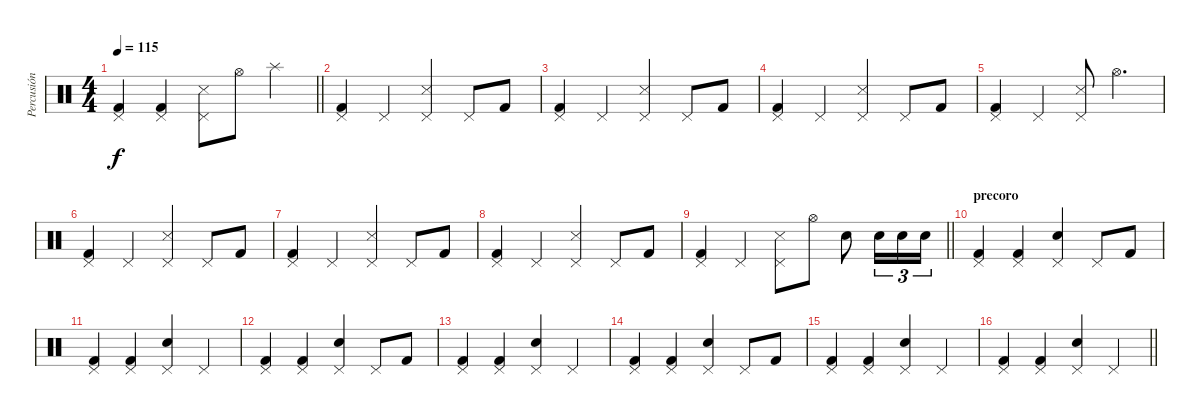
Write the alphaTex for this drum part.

\track ("Percusión" "Percusión") {instrument percussion}
\staff {score}
\articulation defaults
\ts (4 4)
\tempo 115
\clef neutral
\barLineRight lightlight
\ks c
("Pedal Hi-Hat (hit)" "Kick (hit) 2").4{dy f} ("Pedal Hi-Hat (hit)" "Kick (hit) 2").4 ("Pedal Hi-Hat (hit)" "Snare (side stick) 3").8 "Hi-Hat (open)".8 "Splash (hit)".4 |
("Pedal Hi-Hat (hit)" "Kick (hit) 2").4 "Pedal Hi-Hat (hit)".4 ("Pedal Hi-Hat (hit)" "Snare (side stick) 3").4 "Pedal Hi-Hat (hit)".8 "Kick (hit) 2".8 |
("Pedal Hi-Hat (hit)" "Kick (hit) 2").4 "Pedal Hi-Hat (hit)".4 ("Pedal Hi-Hat (hit)" "Snare (side stick) 3").4 "Pedal Hi-Hat (hit)".8 "Kick (hit) 2".8 |
("Pedal Hi-Hat (hit)" "Kick (hit) 2").4 "Pedal Hi-Hat (hit)".4 ("Pedal Hi-Hat (hit)" "Snare (side stick) 3").4 "Pedal Hi-Hat (hit)".8 "Kick (hit) 2".8 |
("Pedal Hi-Hat (hit)" "Kick (hit) 2").4 "Pedal Hi-Hat (hit)".4 ("Pedal Hi-Hat (hit)" "Snare (side stick) 3").8 "Hi-Hat (open)".4{d} |
("Pedal Hi-Hat (hit)" "Kick (hit) 2").4 "Pedal Hi-Hat (hit)".4 ("Pedal Hi-Hat (hit)" "Snare (side stick) 3").4 "Pedal Hi-Hat (hit)".8 "Kick (hit) 2".8 |
("Pedal Hi-Hat (hit)" "Kick (hit) 2").4 "Pedal Hi-Hat (hit)".4 ("Pedal Hi-Hat (hit)" "Snare (side stick) 3").4 "Pedal Hi-Hat (hit)".8 "Kick (hit) 2".8 |
("Pedal Hi-Hat (hit)" "Kick (hit) 2").4 "Pedal Hi-Hat (hit)".4 ("Pedal Hi-Hat (hit)" "Snare (side stick) 3").4 "Pedal Hi-Hat (hit)".8 "Kick (hit) 2".8 |
\barLineRight lightlight
("Pedal Hi-Hat (hit)" "Kick (hit) 2").4 "Pedal Hi-Hat (hit)".4 ("Pedal Hi-Hat (hit)" "Snare (side stick) 3").8 "Hi-Hat (open)".8 "Electric Snare (hit)".8 "Electric Snare (hit)".16{tu (3 2)} "Electric Snare (hit)".16{tu (3 2)} "Electric Snare (hit)".16{tu (3 2)} |
\section ("" "precoro")
("Kick (hit) 2" "Pedal Hi-Hat (hit)").4 ("Kick (hit) 2" "Pedal Hi-Hat (hit)").4 ("Electric Snare (hit)" "Pedal Hi-Hat (hit)").4 "Pedal Hi-Hat (hit)".8 "Kick (hit) 2".8 |
("Kick (hit) 2" "Pedal Hi-Hat (hit)").4 ("Kick (hit) 2" "Pedal Hi-Hat (hit)").4 ("Electric Snare (hit)" "Pedal Hi-Hat (hit)").4 "Pedal Hi-Hat (hit)".4 |
("Kick (hit) 2" "Pedal Hi-Hat (hit)").4 ("Kick (hit) 2" "Pedal Hi-Hat (hit)").4 ("Electric Snare (hit)" "Pedal Hi-Hat (hit)").4 "Pedal Hi-Hat (hit)".8 "Kick (hit) 2".8 |
("Kick (hit) 2" "Pedal Hi-Hat (hit)").4 ("Kick (hit) 2" "Pedal Hi-Hat (hit)").4 ("Electric Snare (hit)" "Pedal Hi-Hat (hit)").4 "Pedal Hi-Hat (hit)".4 |
("Kick (hit) 2" "Pedal Hi-Hat (hit)").4 ("Kick (hit) 2" "Pedal Hi-Hat (hit)").4 ("Electric Snare (hit)" "Pedal Hi-Hat (hit)").4 "Pedal Hi-Hat (hit)".8 "Kick (hit) 2".8 |
("Kick (hit) 2" "Pedal Hi-Hat (hit)").4 ("Kick (hit) 2" "Pedal Hi-Hat (hit)").4 ("Electric Snare (hit)" "Pedal Hi-Hat (hit)").4 "Pedal Hi-Hat (hit)".4 |
\barLineRight lightlight
("Kick (hit) 2" "Pedal Hi-Hat (hit)").4 ("Kick (hit) 2" "Pedal Hi-Hat (hit)").4 ("Electric Snare (hit)" "Pedal Hi-Hat (hit)").4 "Pedal Hi-Hat (hit)".4
